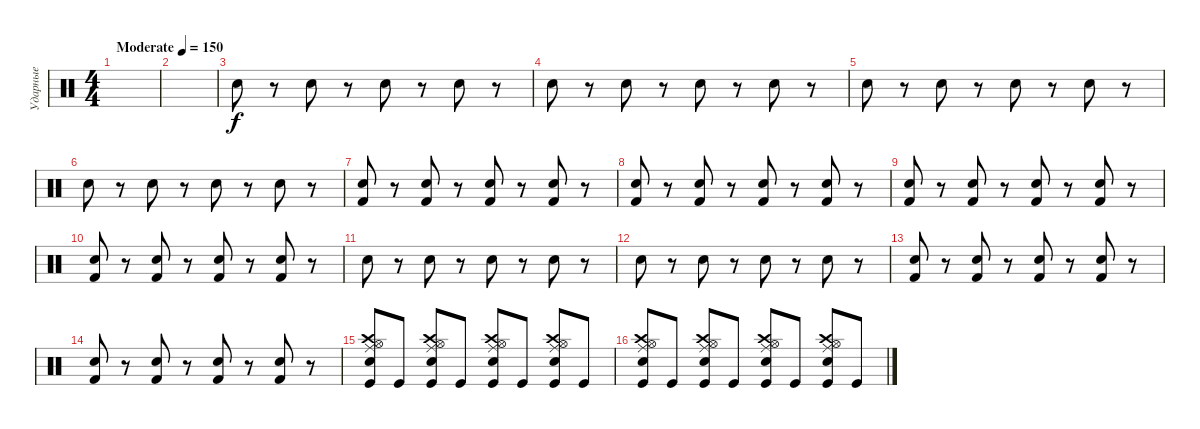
\track ("Ударные" "Ударные") {instrument percussion}
\staff {score}
\articulation defaults
\ts (4 4)
\tempo (150 "Moderate")
\clef neutral
\ks c
|
|
"Snare (hit) 2".8 r.8 "Snare (hit) 2".8 r.8 "Snare (hit) 2".8 r.8 "Snare (hit) 2".8 r.8 |
"Snare (hit) 2".8 r.8 "Snare (hit) 2".8 r.8 "Snare (hit) 2".8 r.8 "Snare (hit) 2".8 r.8 |
"Snare (hit) 2".8 r.8 "Snare (hit) 2".8 r.8 "Snare (hit) 2".8 r.8 "Snare (hit) 2".8 r.8 |
"Snare (hit) 2".8 r.8 "Snare (hit) 2".8 r.8 "Snare (hit) 2".8 r.8 "Snare (hit) 2".8 r.8 |
("Kick (hit) 2" "Snare (hit) 2").8 r.8 ("Kick (hit) 2" "Snare (hit) 2").8 r.8 ("Kick (hit) 2" "Snare (hit) 2").8 r.8 ("Kick (hit) 2" "Snare (hit) 2").8 r.8 |
("Kick (hit) 2" "Snare (hit) 2").8 r.8 ("Kick (hit) 2" "Snare (hit) 2").8 r.8 ("Kick (hit) 2" "Snare (hit) 2").8 r.8 ("Kick (hit) 2" "Snare (hit) 2").8 r.8 |
("Kick (hit) 2" "Snare (hit) 2").8 r.8 ("Kick (hit) 2" "Snare (hit) 2").8 r.8 ("Kick (hit) 2" "Snare (hit) 2").8 r.8 ("Kick (hit) 2" "Snare (hit) 2").8 r.8 |
("Kick (hit) 2" "Snare (hit) 2").8 r.8 ("Kick (hit) 2" "Snare (hit) 2").8 r.8 ("Kick (hit) 2" "Snare (hit) 2").8 r.8 ("Kick (hit) 2" "Snare (hit) 2").8 r.8 |
"Snare (hit) 2".8 r.8 "Snare (hit) 2".8 r.8 "Snare (hit) 2".8 r.8 "Snare (hit) 2".8 r.8 |
"Snare (hit) 2".8 r.8 "Snare (hit) 2".8 r.8 "Snare (hit) 2".8 r.8 "Snare (hit) 2".8 r.8 |
("Kick (hit) 2" "Snare (hit) 2").8 r.8 ("Kick (hit) 2" "Snare (hit) 2").8 r.8 ("Kick (hit) 2" "Snare (hit) 2").8 r.8 ("Kick (hit) 2" "Snare (hit) 2").8 r.8 |
("Kick (hit) 2" "Snare (hit) 2").8 r.8 ("Kick (hit) 2" "Snare (hit) 2").8 r.8 ("Kick (hit) 2" "Snare (hit) 2").8 r.8 ("Kick (hit) 2" "Snare (hit) 2").8 r.8 |
("Crash high (hit)" "Ride (middle)" "Hi-Hat (open)" "Kick (hit)" "Snare (hit) 2").8 "Kick (hit)".8 ("Crash high (hit)" "Ride (middle)" "Hi-Hat (open)" "Kick (hit)" "Snare (hit) 2").8 "Kick (hit)".8 ("Crash high (hit)" "Ride (middle)" "Hi-Hat (open)" "Kick (hit)" "Snare (hit) 2").8 "Kick (hit)".8 ("Crash high (hit)" "Ride (middle)" "Hi-Hat (open)" "Kick (hit)" "Snare (hit) 2").8 "Kick (hit)".8 |
("Crash high (hit)" "Ride (middle)" "Hi-Hat (open)" "Kick (hit)" "Snare (hit) 2").8 "Kick (hit)".8 ("Crash high (hit)" "Ride (middle)" "Hi-Hat (open)" "Kick (hit)" "Snare (hit) 2").8 "Kick (hit)".8 ("Crash high (hit)" "Ride (middle)" "Hi-Hat (open)" "Kick (hit)" "Snare (hit) 2").8 "Kick (hit)".8 ("Crash high (hit)" "Ride (middle)" "Hi-Hat (open)" "Kick (hit)" "Snare (hit) 2").8 "Kick (hit)".8
